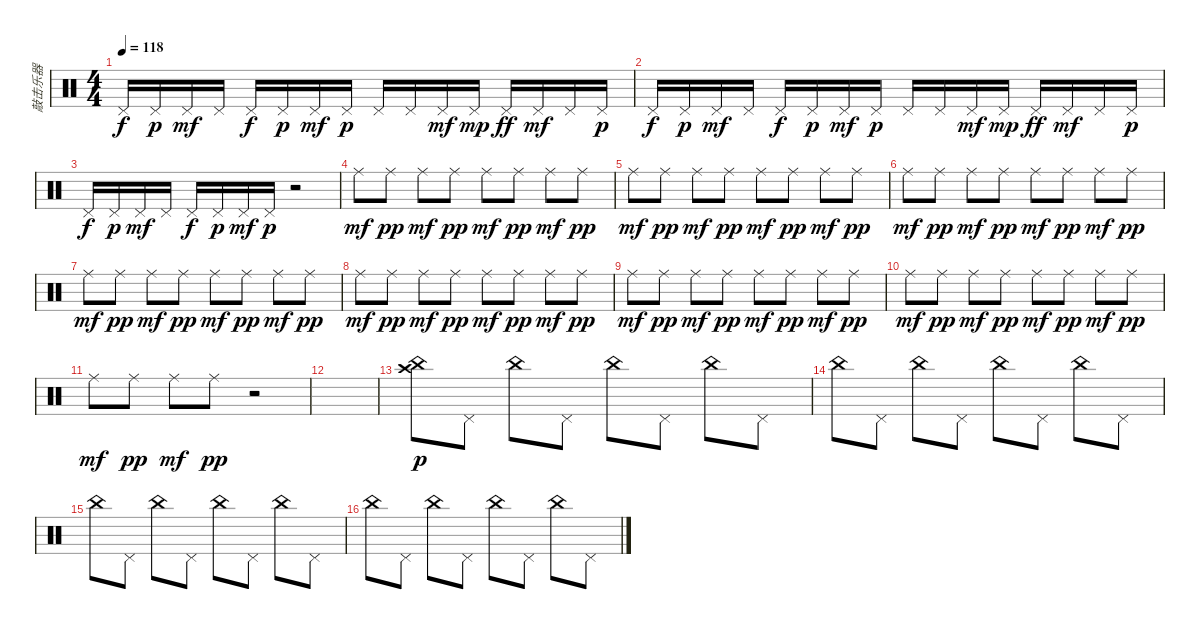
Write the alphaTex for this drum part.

\track ("敲击乐器" "敲击乐器") {instrument percussion}
\staff {score}
\articulation defaults
\ts (4 4)
\tempo 118
\clef neutral
\ks c "Pedal Hi-Hat (hit)".16{dy f} "Pedal Hi-Hat (hit)".16{dy p} "Pedal Hi-Hat (hit)".16{dy mf} "Pedal Hi-Hat (hit)".16 "Pedal Hi-Hat (hit)".16{dy f} "Pedal Hi-Hat (hit)".16{dy p} "Pedal Hi-Hat (hit)".16{dy mf} "Pedal Hi-Hat (hit)".16{dy p} "Pedal Hi-Hat (hit)".16 "Pedal Hi-Hat (hit)".16 "Pedal Hi-Hat (hit)".16{dy mf} "Pedal Hi-Hat (hit)".16{dy mp} "Pedal Hi-Hat (hit)".16{dy ff} "Pedal Hi-Hat (hit)".16{dy mf} "Pedal Hi-Hat (hit)".16 "Pedal Hi-Hat (hit)".16{dy p}
|
"Pedal Hi-Hat (hit)".16{dy f} "Pedal Hi-Hat (hit)".16{dy p} "Pedal Hi-Hat (hit)".16{dy mf} "Pedal Hi-Hat (hit)".16 "Pedal Hi-Hat (hit)".16{dy f} "Pedal Hi-Hat (hit)".16{dy p} "Pedal Hi-Hat (hit)".16{dy mf} "Pedal Hi-Hat (hit)".16{dy p} "Pedal Hi-Hat (hit)".16 "Pedal Hi-Hat (hit)".16 "Pedal Hi-Hat (hit)".16{dy mf} "Pedal Hi-Hat (hit)".16{dy mp} "Pedal Hi-Hat (hit)".16{dy ff} "Pedal Hi-Hat (hit)".16{dy mf} "Pedal Hi-Hat (hit)".16 "Pedal Hi-Hat (hit)".16{dy p} |
"Pedal Hi-Hat (hit)".16{dy f} "Pedal Hi-Hat (hit)".16{dy p} "Pedal Hi-Hat (hit)".16{dy mf} "Pedal Hi-Hat (hit)".16 "Pedal Hi-Hat (hit)".16{dy f} "Pedal Hi-Hat (hit)".16{dy p} "Pedal Hi-Hat (hit)".16{dy mf} "Pedal Hi-Hat (hit)".16{dy p} r.2 |
"Ride (middle)".8{dy mf} "Ride (middle)".8{dy pp} "Ride (middle)".8{dy mf} "Ride (middle)".8{dy pp} "Ride (middle)".8{dy mf} "Ride (middle)".8{dy pp} "Ride (middle)".8{dy mf} "Ride (middle)".8{dy pp} |
"Ride (middle)".8{dy mf} "Ride (middle)".8{dy pp} "Ride (middle)".8{dy mf} "Ride (middle)".8{dy pp} "Ride (middle)".8{dy mf} "Ride (middle)".8{dy pp} "Ride (middle)".8{dy mf} "Ride (middle)".8{dy pp} |
"Ride (middle)".8{dy mf} "Ride (middle)".8{dy pp} "Ride (middle)".8{dy mf} "Ride (middle)".8{dy pp} "Ride (middle)".8{dy mf} "Ride (middle)".8{dy pp} "Ride (middle)".8{dy mf} "Ride (middle)".8{dy pp} |
"Ride (middle)".8{dy mf} "Ride (middle)".8{dy pp} "Ride (middle)".8{dy mf} "Ride (middle)".8{dy pp} "Ride (middle)".8{dy mf} "Ride (middle)".8{dy pp} "Ride (middle)".8{dy mf} "Ride (middle)".8{dy pp} |
"Ride (middle)".8{dy mf} "Ride (middle)".8{dy pp} "Ride (middle)".8{dy mf} "Ride (middle)".8{dy pp} "Ride (middle)".8{dy mf} "Ride (middle)".8{dy pp} "Ride (middle)".8{dy mf} "Ride (middle)".8{dy pp} |
"Ride (middle)".8{dy mf} "Ride (middle)".8{dy pp} "Ride (middle)".8{dy mf} "Ride (middle)".8{dy pp} "Ride (middle)".8{dy mf} "Ride (middle)".8{dy pp} "Ride (middle)".8{dy mf} "Ride (middle)".8{dy pp} |
"Ride (middle)".8{dy mf} "Ride (middle)".8{dy pp} "Ride (middle)".8{dy mf} "Ride (middle)".8{dy pp} "Ride (middle)".8{dy mf} "Ride (middle)".8{dy pp} "Ride (middle)".8{dy mf} "Ride (middle)".8{dy pp} |
"Ride (middle)".8{dy mf} "Ride (middle)".8{dy pp} "Ride (middle)".8{dy mf} "Ride (middle)".8{dy pp} r.2 |
|
("Crash high (hit)" "China (hit)").8{dy p} "Pedal Hi-Hat (hit)".8 "China (hit)".8 "Pedal Hi-Hat (hit)".8 "China (hit)".8 "Pedal Hi-Hat (hit)".8 "China (hit)".8 "Pedal Hi-Hat (hit)".8 |
"China (hit)".8 "Pedal Hi-Hat (hit)".8 "China (hit)".8 "Pedal Hi-Hat (hit)".8 "China (hit)".8 "Pedal Hi-Hat (hit)".8 "China (hit)".8 "Pedal Hi-Hat (hit)".8 |
"China (hit)".8 "Pedal Hi-Hat (hit)".8 "China (hit)".8 "Pedal Hi-Hat (hit)".8 "China (hit)".8 "Pedal Hi-Hat (hit)".8 "China (hit)".8 "Pedal Hi-Hat (hit)".8 |
"China (hit)".8 "Pedal Hi-Hat (hit)".8 "China (hit)".8 "Pedal Hi-Hat (hit)".8 "China (hit)".8 "Pedal Hi-Hat (hit)".8 "China (hit)".8 "Pedal Hi-Hat (hit)".8
